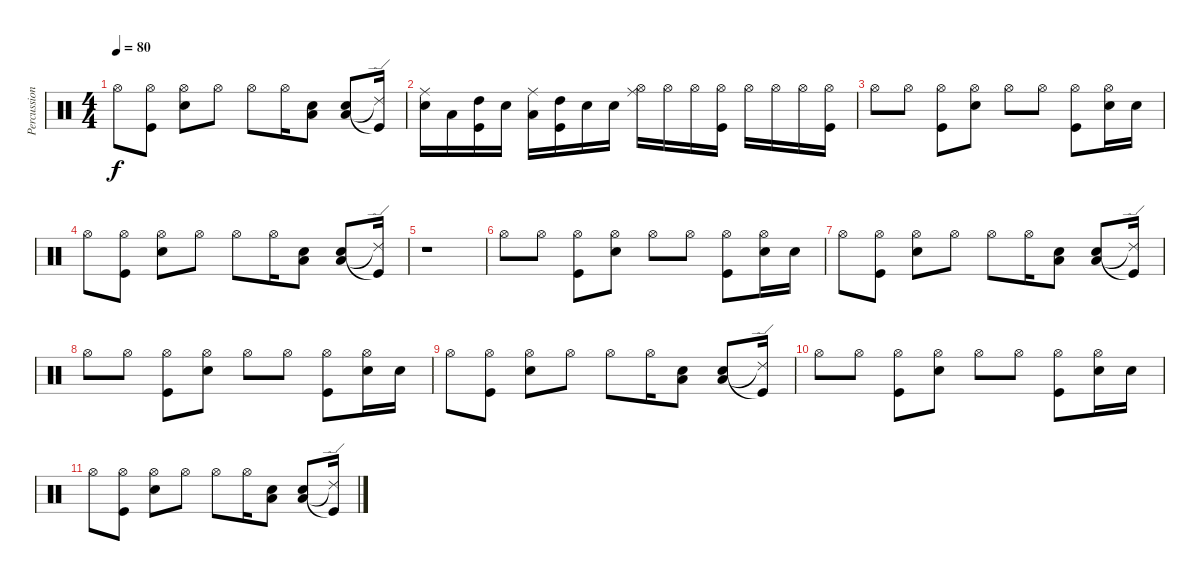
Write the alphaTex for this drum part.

\track ("Percussion" "Percussion") {instrument percussion}
\staff {score}
\articulation defaults
\ts (4 4)
\tempo 80
\clef neutral
\ks c "Hi-Hat (open)".8{dy f}
("Kick (hit)" "Hi-Hat (open)").8 ("Snare (hit) 2" "Hi-Hat (open)").8 "Hi-Hat (open)".8 "Hi-Hat (open)".8 "Hi-Hat (open)".16 ("Snare (hit) 2" "Low Tom (hit)").8 ("Snare (hit) 2" "Low Tom (hit)").8 ("Kick (hit)"{t} "Ride (edge) 2"{t}).16 |
("Snare (hit) 2" "Ride (middle)").16 "Low Tom (hit)".16 ("High Tom (hit)" "Kick (hit)").16 "Snare (hit) 2".16 ("Low Tom (hit)" "Ride (middle)").16 ("High Tom (hit)" "Kick (hit)").16 "Snare (hit) 2".16 "Snare (hit) 2".16 ("Hi-Hat (open)" "Ride (middle)").16 "Hi-Hat (open)".16 "Hi-Hat (open)".16 ("Hi-Hat (open)" "Kick (hit)").16 "Hi-Hat (open)".16 "Hi-Hat (open)".16 "Hi-Hat (open)".16 ("Hi-Hat (open)" "Kick (hit)").16 |
"Hi-Hat (open)".8 "Hi-Hat (open)".8 ("Kick (hit)" "Hi-Hat (open)").8 ("Snare (hit) 2" "Hi-Hat (open)").8 "Hi-Hat (open)".8 "Hi-Hat (open)".8 ("Kick (hit)" "Hi-Hat (open)").8 ("Snare (hit) 2" "Hi-Hat (open)").16 "Snare (hit) 2".16 |
"Hi-Hat (open)".8 ("Kick (hit)" "Hi-Hat (open)").8 ("Snare (hit) 2" "Hi-Hat (open)").8 "Hi-Hat (open)".8 "Hi-Hat (open)".8 "Hi-Hat (open)".16 ("Snare (hit) 2" "Low Tom (hit)").8 ("Snare (hit) 2" "Low Tom (hit)").8 ("Kick (hit)"{t} "Ride (edge) 2"{t}).16 |
r.1 |
"Hi-Hat (open)".8 "Hi-Hat (open)".8 ("Kick (hit)" "Hi-Hat (open)").8 ("Snare (hit) 2" "Hi-Hat (open)").8 "Hi-Hat (open)".8 "Hi-Hat (open)".8 ("Kick (hit)" "Hi-Hat (open)").8 ("Snare (hit) 2" "Hi-Hat (open)").16 "Snare (hit) 2".16 |
"Hi-Hat (open)".8 ("Kick (hit)" "Hi-Hat (open)").8 ("Snare (hit) 2" "Hi-Hat (open)").8 "Hi-Hat (open)".8 "Hi-Hat (open)".8 "Hi-Hat (open)".16 ("Snare (hit) 2" "Low Tom (hit)").8 ("Snare (hit) 2" "Low Tom (hit)").8 ("Kick (hit)"{t} "Ride (edge) 2"{t}).16 |
"Hi-Hat (open)".8 "Hi-Hat (open)".8 ("Kick (hit)" "Hi-Hat (open)").8 ("Snare (hit) 2" "Hi-Hat (open)").8 "Hi-Hat (open)".8 "Hi-Hat (open)".8 ("Kick (hit)" "Hi-Hat (open)").8 ("Snare (hit) 2" "Hi-Hat (open)").16 "Snare (hit) 2".16 |
"Hi-Hat (open)".8 ("Kick (hit)" "Hi-Hat (open)").8 ("Snare (hit) 2" "Hi-Hat (open)").8 "Hi-Hat (open)".8 "Hi-Hat (open)".8 "Hi-Hat (open)".16 ("Snare (hit) 2" "Low Tom (hit)").8 ("Snare (hit) 2" "Low Tom (hit)").8 ("Kick (hit)"{t} "Ride (edge) 2"{t}).16 |
"Hi-Hat (open)".8 "Hi-Hat (open)".8 ("Kick (hit)" "Hi-Hat (open)").8 ("Snare (hit) 2" "Hi-Hat (open)").8 "Hi-Hat (open)".8 "Hi-Hat (open)".8 ("Kick (hit)" "Hi-Hat (open)").8 ("Snare (hit) 2" "Hi-Hat (open)").16 "Snare (hit) 2".16 |
"Hi-Hat (open)".8 ("Kick (hit)" "Hi-Hat (open)").8 ("Snare (hit) 2" "Hi-Hat (open)").8 "Hi-Hat (open)".8 "Hi-Hat (open)".8 "Hi-Hat (open)".16 ("Snare (hit) 2" "Low Tom (hit)").8 ("Snare (hit) 2" "Low Tom (hit)").8 ("Kick (hit)"{t} "Ride (edge) 2"{t}).16
